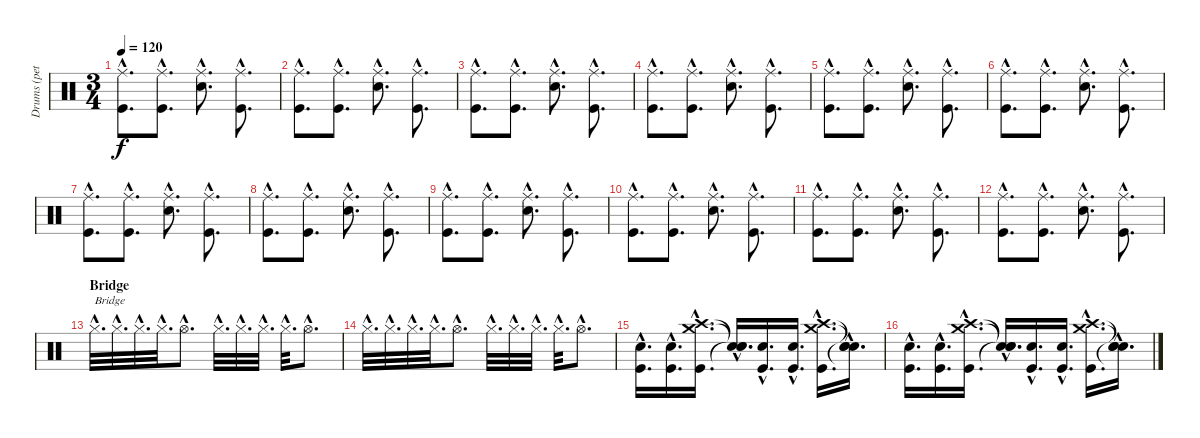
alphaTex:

\track ("Drums (pete)" "Drums (pet") {instrument percussion}
\staff {score}
\articulation defaults
\ts (3 4)
\tempo 120
\clef neutral
\ks c
("Ride (middle)"{hac} "Kick (hit)"{hac}).8{d dy f} ("Ride (middle)"{hac} "Kick (hit)"{hac}).8{d} ("Ride (middle)"{hac} "Snare (hit) 2"{hac}).8{d} ("Ride (middle)"{hac} "Kick (hit)"{hac}).8{d} |
("Ride (middle)"{hac} "Kick (hit)"{hac}).8{d} ("Ride (middle)"{hac} "Kick (hit)"{hac}).8{d} ("Ride (middle)"{hac} "Snare (hit) 2"{hac}).8{d} ("Ride (middle)"{hac} "Kick (hit)"{hac}).8{d} |
("Ride (middle)"{hac} "Kick (hit)"{hac}).8{d} ("Ride (middle)"{hac} "Kick (hit)"{hac}).8{d} ("Ride (middle)"{hac} "Snare (hit) 2"{hac}).8{d} ("Ride (middle)"{hac} "Kick (hit)"{hac}).8{d} |
("Ride (middle)"{hac} "Kick (hit)"{hac}).8{d} ("Ride (middle)"{hac} "Kick (hit)"{hac}).8{d} ("Ride (middle)"{hac} "Snare (hit) 2"{hac}).8{d} ("Ride (middle)"{hac} "Kick (hit)"{hac}).8{d} |
("Ride (middle)"{hac} "Kick (hit)"{hac}).8{d} ("Ride (middle)"{hac} "Kick (hit)"{hac}).8{d} ("Ride (middle)"{hac} "Snare (hit) 2"{hac}).8{d} ("Ride (middle)"{hac} "Kick (hit)"{hac}).8{d} |
("Ride (middle)"{hac} "Kick (hit)"{hac}).8{d} ("Ride (middle)"{hac} "Kick (hit)"{hac}).8{d} ("Ride (middle)"{hac} "Snare (hit) 2"{hac}).8{d} ("Ride (middle)"{hac} "Kick (hit)"{hac}).8{d} |
("Ride (middle)"{hac} "Kick (hit)"{hac}).8{d} ("Ride (middle)"{hac} "Kick (hit)"{hac}).8{d} ("Ride (middle)"{hac} "Snare (hit) 2"{hac}).8{d} ("Ride (middle)"{hac} "Kick (hit)"{hac}).8{d} |
("Ride (middle)"{hac} "Kick (hit)"{hac}).8{d} ("Ride (middle)"{hac} "Kick (hit)"{hac}).8{d} ("Ride (middle)"{hac} "Snare (hit) 2"{hac}).8{d} ("Ride (middle)"{hac} "Kick (hit)"{hac}).8{d} |
("Ride (middle)"{hac} "Kick (hit)"{hac}).8{d} ("Ride (middle)"{hac} "Kick (hit)"{hac}).8{d} ("Ride (middle)"{hac} "Snare (hit) 2"{hac}).8{d} ("Ride (middle)"{hac} "Kick (hit)"{hac}).8{d} |
("Ride (middle)"{hac} "Kick (hit)"{hac}).8{d} ("Ride (middle)"{hac} "Kick (hit)"{hac}).8{d} ("Ride (middle)"{hac} "Snare (hit) 2"{hac}).8{d} ("Ride (middle)"{hac} "Kick (hit)"{hac}).8{d} |
("Ride (middle)"{hac} "Kick (hit)"{hac}).8{d} ("Ride (middle)"{hac} "Kick (hit)"{hac}).8{d} ("Ride (middle)"{hac} "Snare (hit) 2"{hac}).8{d} ("Ride (middle)"{hac} "Kick (hit)"{hac}).8{d} |
("Ride (middle)"{hac} "Kick (hit)"{hac}).8{d} ("Ride (middle)"{hac} "Kick (hit)"{hac}).8{d} ("Ride (middle)"{hac} "Snare (hit) 2"{hac}).8{d} ("Ride (middle)"{hac} "Kick (hit)"{hac}).8{d} |
\section ("" "Bridge")
"Hi-Hat (closed)"{hac}.32{d txt "Bridge"} "Hi-Hat (closed)"{hac}.32{d} "Hi-Hat (closed)"{hac}.32{d} "Hi-Hat (closed)"{hac}.32{d} "Hi-Hat (open)"{hac}.8{d} "Hi-Hat (closed)"{hac}.32{d} "Hi-Hat (closed)"{hac}.32{d} "Hi-Hat (closed)"{hac}.32{d} "Hi-Hat (closed)"{hac}.32{d} "Hi-Hat (open)"{hac}.8{d} |
"Hi-Hat (closed)"{hac}.32{d} "Hi-Hat (closed)"{hac}.32{d} "Hi-Hat (closed)"{hac}.32{d} "Hi-Hat (closed)"{hac}.32{d} "Hi-Hat (open)"{hac}.8{d} "Hi-Hat (closed)"{hac}.32{d} "Hi-Hat (closed)"{hac}.32{d} "Hi-Hat (closed)"{hac}.32{d} "Hi-Hat (closed)"{hac}.32{d} "Hi-Hat (open)"{hac}.8{d} |
("Snare (hit) 2"{hac} "Kick (hit)"{hac}).16{d} ("Snare (hit) 2"{hac} "Kick (hit)"{hac}).16{d} ("Crash medium (hit)"{hac} "Crash high (hit)"{hac} "Kick (hit)"{hac}).16{d} ("Snare (hit)"{hac t} "Snare (hit)"{hac t} "Snare (hit)"{hac t}).16{d} ("Snare (hit) 2"{hac} "Kick (hit)"{hac}).16{d} ("Snare (hit) 2"{hac} "Kick (hit)"{hac}).16{d} ("Crash medium (hit)"{hac} "Crash high (hit)"{hac} "Kick (hit)"{hac}).16{d} ("Snare (hit)"{hac t} "Snare (hit)"{hac t} "Snare (hit)"{hac t}).16{d} |
("Snare (hit) 2"{hac} "Kick (hit)"{hac}).16{d} ("Snare (hit) 2"{hac} "Kick (hit)"{hac}).16{d} ("Crash medium (hit)"{hac} "Crash high (hit)"{hac} "Kick (hit)"{hac}).16{d} ("Snare (hit)"{hac t} "Snare (hit)"{hac t} "Snare (hit)"{hac t}).16{d} ("Snare (hit) 2"{hac} "Kick (hit)"{hac}).16{d} ("Snare (hit) 2"{hac} "Kick (hit)"{hac}).16{d} ("Crash medium (hit)"{hac} "Crash high (hit)"{hac} "Kick (hit)"{hac}).16{d} ("Snare (hit)"{hac t} "Snare (hit)"{hac t} "Snare (hit)"{hac t}).16{d}
